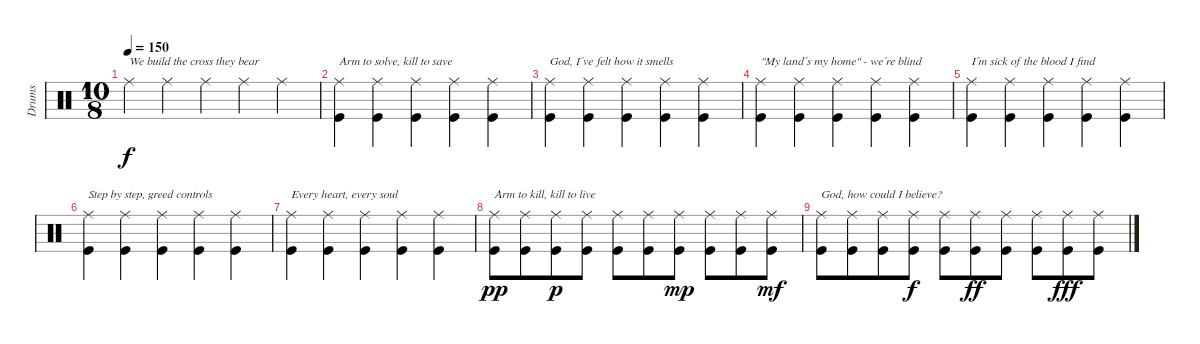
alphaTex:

\track ("Drums" "Drums") {instrument percussion}
\staff {score}
\articulation defaults
\ts (10 8)
\tempo 150
\clef neutral
\ks c "Ride (middle)".4{txt "We build the cross they bear" dy f} "Ride (middle)".4 "Ride (middle)".4 "Ride (middle)".4 "Ride (middle)".4
|
("Ride (middle)" "Kick (hit)").4{txt "Arm to solve, kill to save"} ("Ride (middle)" "Kick (hit)").4 ("Ride (middle)" "Kick (hit)").4 ("Ride (middle)" "Kick (hit)").4 ("Ride (middle)" "Kick (hit)").4 |
("Ride (middle)" "Kick (hit)").4{txt "God, I´ve felt how it smells"} ("Ride (middle)" "Kick (hit)").4 ("Ride (middle)" "Kick (hit)").4 ("Ride (middle)" "Kick (hit)").4 ("Ride (middle)" "Kick (hit)").4 |
("Ride (middle)" "Kick (hit)").4{txt "\"My land´s my home\" - we´re blind"} ("Ride (middle)" "Kick (hit)").4 ("Ride (middle)" "Kick (hit)").4 ("Ride (middle)" "Kick (hit)").4 ("Ride (middle)" "Kick (hit)").4 |
("Ride (middle)" "Kick (hit)").4{txt "I´m sick of the blood I find"} ("Ride (middle)" "Kick (hit)").4 ("Ride (middle)" "Kick (hit)").4 ("Ride (middle)" "Kick (hit)").4 ("Ride (middle)" "Kick (hit)").4 |
("Ride (middle)" "Kick (hit)").4{txt "Step by step, greed controls"} ("Ride (middle)" "Kick (hit)").4 ("Ride (middle)" "Kick (hit)").4 ("Ride (middle)" "Kick (hit)").4 ("Ride (middle)" "Kick (hit)").4 |
("Ride (middle)" "Kick (hit)").4{txt "Every heart, every soul"} ("Ride (middle)" "Kick (hit)").4 ("Ride (middle)" "Kick (hit)").4 ("Ride (middle)" "Kick (hit)").4 ("Ride (middle)" "Kick (hit)").4 |
("Ride (middle)" "Kick (hit)").8{txt "Arm to kill, kill to live" dy pp} ("Ride (middle)" "Kick (hit)").8 ("Ride (middle)" "Kick (hit)").8{dy p} ("Ride (middle)" "Kick (hit)").8 ("Ride (middle)" "Kick (hit)").8 ("Ride (middle)" "Kick (hit)").8 ("Ride (middle)" "Kick (hit)").8{dy mp} ("Ride (middle)" "Kick (hit)").8 ("Ride (middle)" "Kick (hit)").8 ("Ride (middle)" "Kick (hit)").8{dy mf} |
("Ride (middle)" "Kick (hit)").8{txt "God, how could I believe?"} ("Ride (middle)" "Kick (hit)").8 ("Ride (middle)" "Kick (hit)").8 ("Ride (middle)" "Kick (hit)").8{dy f} ("Ride (middle)" "Kick (hit)").8 ("Ride (middle)" "Kick (hit)").8{dy ff} ("Ride (middle)" "Kick (hit)").8 ("Ride (middle)" "Kick (hit)").8 ("Ride (middle)" "Kick (hit)").8{dy fff} ("Ride (middle)" "Kick (hit)").8
